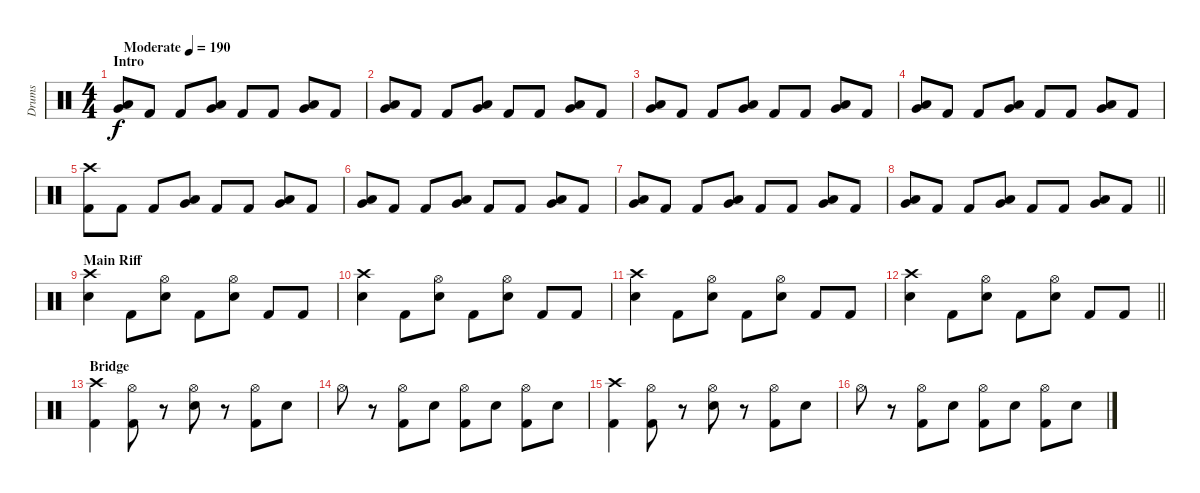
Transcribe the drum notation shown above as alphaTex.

\track ("Drums" "Drums") {instrument percussion}
\staff {score}
\articulation defaults
\ts (4 4)
\section ("" "Intro")
\tempo (190 "Moderate")
\clef neutral
\ks c
("Low Tom (hit)" "Very Low Tom (hit)").8{dy f} "Kick (hit) 2".8 "Kick (hit) 2".8 ("Low Tom (hit)" "Very Low Tom (hit)").8 "Kick (hit) 2".8 "Kick (hit) 2".8 ("Low Tom (hit)" "Very Low Tom (hit)").8 "Kick (hit) 2".8 |
("Low Tom (hit)" "Very Low Tom (hit)").8 "Kick (hit) 2".8 "Kick (hit) 2".8 ("Low Tom (hit)" "Very Low Tom (hit)").8 "Kick (hit) 2".8 "Kick (hit) 2".8 ("Low Tom (hit)" "Very Low Tom (hit)").8 "Kick (hit) 2".8 |
("Low Tom (hit)" "Very Low Tom (hit)").8 "Kick (hit) 2".8 "Kick (hit) 2".8 ("Low Tom (hit)" "Very Low Tom (hit)").8 "Kick (hit) 2".8 "Kick (hit) 2".8 ("Low Tom (hit)" "Very Low Tom (hit)").8 "Kick (hit) 2".8 |
("Low Tom (hit)" "Very Low Tom (hit)").8 "Kick (hit) 2".8 "Kick (hit) 2".8 ("Low Tom (hit)" "Very Low Tom (hit)").8 "Kick (hit) 2".8 "Kick (hit) 2".8 ("Low Tom (hit)" "Very Low Tom (hit)").8 "Kick (hit) 2".8 |
("Crash high (hit)" "Kick (hit) 2").8 "Kick (hit) 2".8 "Kick (hit) 2".8 ("Low Tom (hit)" "Very Low Tom (hit)").8 "Kick (hit) 2".8 "Kick (hit) 2".8 ("Low Tom (hit)" "Very Low Tom (hit)").8 "Kick (hit) 2".8 |
("Low Tom (hit)" "Very Low Tom (hit)").8 "Kick (hit) 2".8 "Kick (hit) 2".8 ("Low Tom (hit)" "Very Low Tom (hit)").8 "Kick (hit) 2".8 "Kick (hit) 2".8 ("Low Tom (hit)" "Very Low Tom (hit)").8 "Kick (hit) 2".8 |
("Low Tom (hit)" "Very Low Tom (hit)").8 "Kick (hit) 2".8 "Kick (hit) 2".8 ("Low Tom (hit)" "Very Low Tom (hit)").8 "Kick (hit) 2".8 "Kick (hit) 2".8 ("Low Tom (hit)" "Very Low Tom (hit)").8 "Kick (hit) 2".8 |
\barLineRight lightlight
("Low Tom (hit)" "Very Low Tom (hit)").8 "Kick (hit) 2".8 "Kick (hit) 2".8 ("Low Tom (hit)" "Very Low Tom (hit)").8 "Kick (hit) 2".8 "Kick (hit) 2".8 ("Low Tom (hit)" "Very Low Tom (hit)").8 "Kick (hit) 2".8 |
\section ("" "Main Riff")
("Crash high (hit)" "Snare (hit) 2").4 "Kick (hit) 2".8 ("Snare (hit) 2" "Hi-Hat (open)").8 "Kick (hit) 2".8 ("Snare (hit) 2" "Hi-Hat (open)").8 "Kick (hit) 2".8 "Kick (hit) 2".8 |
("Crash high (hit)" "Snare (hit) 2").4 "Kick (hit) 2".8 ("Snare (hit) 2" "Hi-Hat (open)").8 "Kick (hit) 2".8 ("Snare (hit) 2" "Hi-Hat (open)").8 "Kick (hit) 2".8 "Kick (hit) 2".8 |
("Crash high (hit)" "Snare (hit) 2").4 "Kick (hit) 2".8 ("Snare (hit) 2" "Hi-Hat (open)").8 "Kick (hit) 2".8 ("Snare (hit) 2" "Hi-Hat (open)").8 "Kick (hit) 2".8 "Kick (hit) 2".8 |
\barLineRight lightlight
("Crash high (hit)" "Snare (hit) 2").4 "Kick (hit) 2".8 ("Snare (hit) 2" "Hi-Hat (open)").8 "Kick (hit) 2".8 ("Snare (hit) 2" "Hi-Hat (open)").8 "Kick (hit) 2".8 "Kick (hit) 2".8 |
\section ("" "Bridge")
("Crash high (hit)" "Kick (hit) 2").4 ("Hi-Hat (open)" "Kick (hit) 2").8 r.8 ("Snare (hit) 2" "Hi-Hat (open)").8 r.8 ("Hi-Hat (open)" "Kick (hit) 2").8 "Snare (hit) 2".8 |
"Hi-Hat (open)".8 r.8 ("Hi-Hat (open)" "Kick (hit) 2").8 "Snare (hit) 2".8 ("Hi-Hat (open)" "Kick (hit) 2").8 "Snare (hit) 2".8 ("Hi-Hat (open)" "Kick (hit) 2").8 "Snare (hit) 2".8 |
("Crash high (hit)" "Kick (hit) 2").4 ("Hi-Hat (open)" "Kick (hit) 2").8 r.8 ("Snare (hit) 2" "Hi-Hat (open)").8 r.8 ("Hi-Hat (open)" "Kick (hit) 2").8 "Snare (hit) 2".8 |
"Hi-Hat (open)".8 r.8 ("Hi-Hat (open)" "Kick (hit) 2").8 "Snare (hit) 2".8 ("Hi-Hat (open)" "Kick (hit) 2").8 "Snare (hit) 2".8 ("Hi-Hat (open)" "Kick (hit) 2").8 "Snare (hit) 2".8
